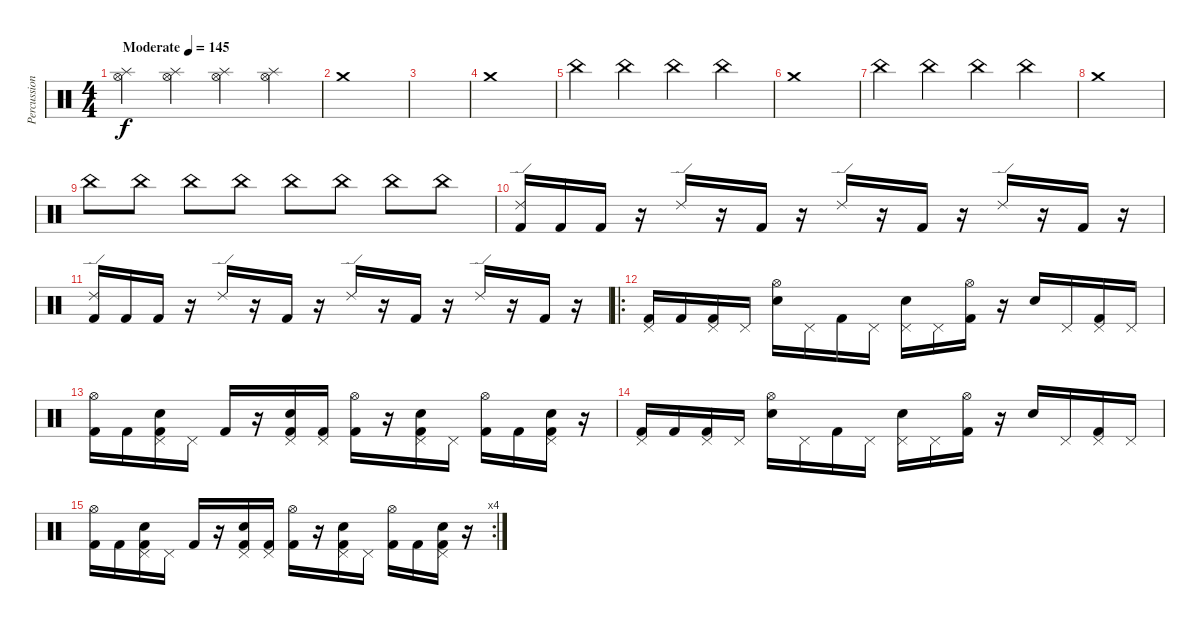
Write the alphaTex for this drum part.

\track ("Percussion" "Percussion") {instrument percussion}
\staff {score}
\articulation defaults
\ts (4 4)
\tempo (145 "Moderate")
\clef neutral
\ks c
("Hi-Hat (open)" "Splash (hit)").4{dy f} ("Hi-Hat (open)" "Splash (hit)").4 ("Hi-Hat (open)" "Splash (hit)").4 ("Hi-Hat (open)" "Splash (hit)").4 |
"Crash medium (hit)".1 |
|
"Crash medium (hit)".1 |
"China (hit)".4 "China (hit)".4 "China (hit)".4 "China (hit)".4 |
"Crash medium (hit)".1 |
"China (hit)".4 "China (hit)".4 "China (hit)".4 "China (hit)".4 |
"Crash medium (hit)".1 |
"China (hit)".8 "China (hit)".8 "China (hit)".8 "China (hit)".8 "China (hit)".8 "China (hit)".8 "China (hit)".8 "China (hit)".8 |
("Ride (edge) 2" "Kick (hit) 2").16 "Kick (hit) 2".16 "Kick (hit) 2".16 r.16 "Ride (edge) 2".16 r.16 "Kick (hit) 2".16 r.16 "Ride (edge) 2".16 r.16 "Kick (hit) 2".16 r.16 "Ride (edge) 2".16 r.16 "Kick (hit) 2".16 r.16 |
("Ride (edge) 2" "Kick (hit) 2").16 "Kick (hit) 2".16 "Kick (hit) 2".16 r.16 "Ride (edge) 2".16 r.16 "Kick (hit) 2".16 r.16 "Ride (edge) 2".16 r.16 "Kick (hit) 2".16 r.16 "Ride (edge) 2".16 r.16 "Kick (hit) 2".16 r.16 |
\ro
("Pedal Hi-Hat (hit)" "Kick (hit) 2").16 "Kick (hit) 2".16 ("Pedal Hi-Hat (hit)" "Kick (hit) 2").16 "Pedal Hi-Hat (hit)".16 ("Hi-Hat (open)" "Snare (hit) 2").16 "Pedal Hi-Hat (hit)".16 "Kick (hit) 2".16 "Pedal Hi-Hat (hit)".16 ("Pedal Hi-Hat (hit)" "Snare (hit) 2").16 "Pedal Hi-Hat (hit)".16 ("Hi-Hat (open)" "Kick (hit) 2").16 r.16 "Snare (hit) 2".16 "Pedal Hi-Hat (hit)".16 ("Pedal Hi-Hat (hit)" "Kick (hit) 2").16 "Pedal Hi-Hat (hit)".16 |
("Hi-Hat (open)" "Kick (hit) 2").16 "Kick (hit) 2".16 ("Pedal Hi-Hat (hit)" "Snare (hit) 2" "Kick (hit) 2").16 "Pedal Hi-Hat (hit)".16 "Kick (hit) 2".16 r.16 ("Pedal Hi-Hat (hit)" "Snare (hit) 2" "Kick (hit) 2").16 ("Pedal Hi-Hat (hit)" "Kick (hit) 2").16 ("Hi-Hat (open)" "Kick (hit) 2").16 r.16 ("Pedal Hi-Hat (hit)" "Snare (hit) 2" "Kick (hit) 2").16 "Pedal Hi-Hat (hit)".16 ("Hi-Hat (open)" "Kick (hit) 2").16 "Kick (hit) 2".16 ("Pedal Hi-Hat (hit)" "Snare (hit) 2" "Kick (hit) 2").16 r.16 |
("Pedal Hi-Hat (hit)" "Kick (hit) 2").16 "Kick (hit) 2".16 ("Pedal Hi-Hat (hit)" "Kick (hit) 2").16 "Pedal Hi-Hat (hit)".16 ("Hi-Hat (open)" "Snare (hit) 2").16 "Pedal Hi-Hat (hit)".16 "Kick (hit) 2".16 "Pedal Hi-Hat (hit)".16 ("Pedal Hi-Hat (hit)" "Snare (hit) 2").16 "Pedal Hi-Hat (hit)".16 ("Hi-Hat (open)" "Kick (hit) 2").16 r.16 "Snare (hit) 2".16 "Pedal Hi-Hat (hit)".16 ("Pedal Hi-Hat (hit)" "Kick (hit) 2").16 "Pedal Hi-Hat (hit)".16 |
\rc 4
("Hi-Hat (open)" "Kick (hit) 2").16 "Kick (hit) 2".16 ("Pedal Hi-Hat (hit)" "Snare (hit) 2" "Kick (hit) 2").16 "Pedal Hi-Hat (hit)".16 "Kick (hit) 2".16 r.16 ("Pedal Hi-Hat (hit)" "Snare (hit) 2" "Kick (hit) 2").16 ("Pedal Hi-Hat (hit)" "Kick (hit) 2").16 ("Hi-Hat (open)" "Kick (hit) 2").16 r.16 ("Pedal Hi-Hat (hit)" "Snare (hit) 2" "Kick (hit) 2").16 "Pedal Hi-Hat (hit)".16 ("Hi-Hat (open)" "Kick (hit) 2").16 "Kick (hit) 2".16 ("Pedal Hi-Hat (hit)" "Snare (hit) 2" "Kick (hit) 2").16 r.16
